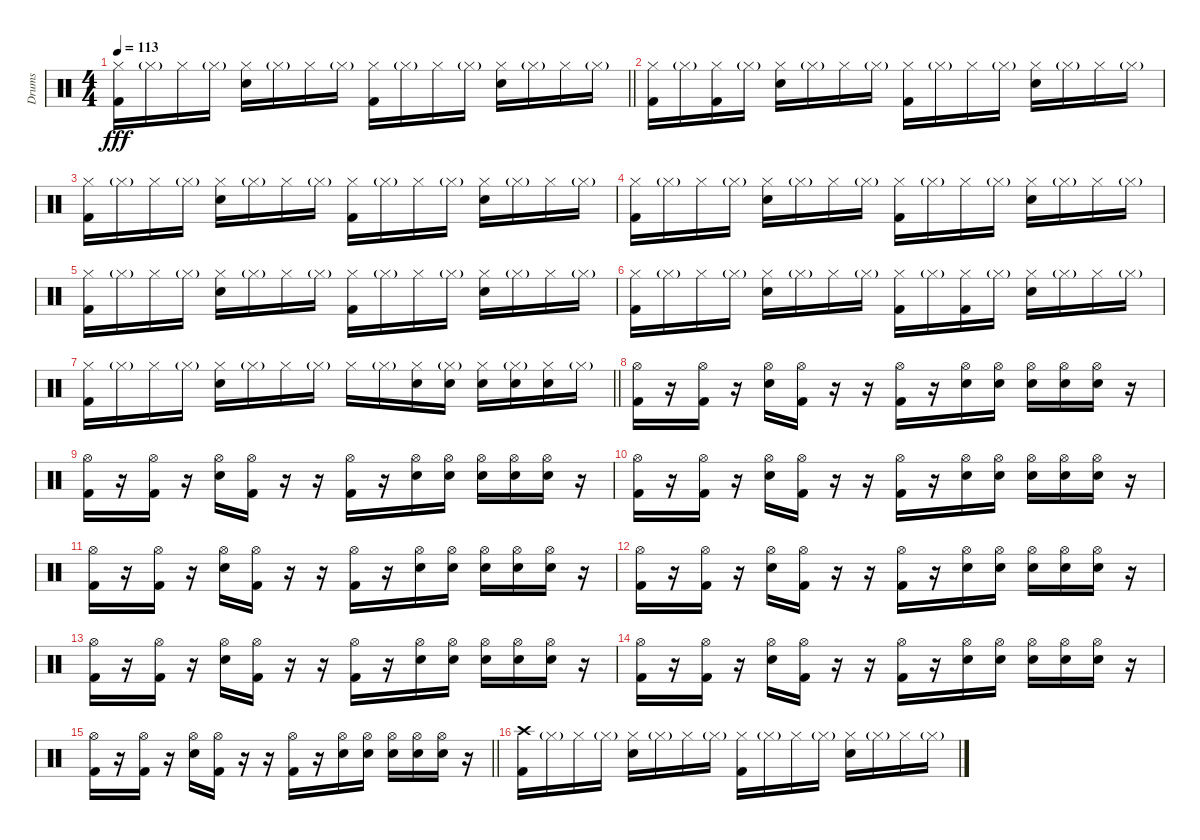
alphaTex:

\track ("Drums" "Drums") {instrument percussion}
\staff {score}
\articulation defaults
\ts (4 4)
\tempo 113
\clef neutral
\barLineRight lightlight
\ks c
("Hi-Hat (closed)" "Kick (hit) 2").16{dy fff} "Hi-Hat (closed)"{g}.16 "Hi-Hat (closed)".16 "Hi-Hat (closed)"{g}.16 ("Hi-Hat (closed)" "Electric Snare (hit)").16 "Hi-Hat (closed)"{g}.16 "Hi-Hat (closed)".16 "Hi-Hat (closed)"{g}.16 ("Hi-Hat (closed)" "Kick (hit) 2").16 "Hi-Hat (closed)"{g}.16 "Hi-Hat (closed)".16 "Hi-Hat (closed)"{g}.16 ("Hi-Hat (closed)" "Electric Snare (hit)").16 "Hi-Hat (closed)"{g}.16 "Hi-Hat (closed)".16 "Hi-Hat (closed)"{g}.16 |
("Hi-Hat (closed)" "Kick (hit) 2").16 "Hi-Hat (closed)"{g}.16 ("Hi-Hat (closed)" "Kick (hit) 2").16 "Hi-Hat (closed)"{g}.16 ("Hi-Hat (closed)" "Electric Snare (hit)").16 "Hi-Hat (closed)"{g}.16 "Hi-Hat (closed)".16 "Hi-Hat (closed)"{g}.16 ("Hi-Hat (closed)" "Kick (hit) 2").16 "Hi-Hat (closed)"{g}.16 "Hi-Hat (closed)".16 "Hi-Hat (closed)"{g}.16 ("Hi-Hat (closed)" "Electric Snare (hit)").16 "Hi-Hat (closed)"{g}.16 "Hi-Hat (closed)".16 "Hi-Hat (closed)"{g}.16 |
("Hi-Hat (closed)" "Kick (hit) 2").16 "Hi-Hat (closed)"{g}.16 "Hi-Hat (closed)".16 "Hi-Hat (closed)"{g}.16 ("Hi-Hat (closed)" "Electric Snare (hit)").16 "Hi-Hat (closed)"{g}.16 "Hi-Hat (closed)".16 "Hi-Hat (closed)"{g}.16 ("Hi-Hat (closed)" "Kick (hit) 2").16 "Hi-Hat (closed)"{g}.16 "Hi-Hat (closed)".16 "Hi-Hat (closed)"{g}.16 ("Hi-Hat (closed)" "Electric Snare (hit)").16 "Hi-Hat (closed)"{g}.16 "Hi-Hat (closed)".16 "Hi-Hat (closed)"{g}.16 |
("Hi-Hat (closed)" "Kick (hit) 2").16 "Hi-Hat (closed)"{g}.16 "Hi-Hat (closed)".16 "Hi-Hat (closed)"{g}.16 ("Hi-Hat (closed)" "Electric Snare (hit)").16 "Hi-Hat (closed)"{g}.16 "Hi-Hat (closed)".16 "Hi-Hat (closed)"{g}.16 ("Hi-Hat (closed)" "Kick (hit) 2").16 "Hi-Hat (closed)"{g}.16 "Hi-Hat (closed)".16 "Hi-Hat (closed)"{g}.16 ("Hi-Hat (closed)" "Electric Snare (hit)").16 "Hi-Hat (closed)"{g}.16 "Hi-Hat (closed)".16 "Hi-Hat (closed)"{g}.16 |
("Hi-Hat (closed)" "Kick (hit) 2").16 "Hi-Hat (closed)"{g}.16 "Hi-Hat (closed)".16 "Hi-Hat (closed)"{g}.16 ("Hi-Hat (closed)" "Electric Snare (hit)").16 "Hi-Hat (closed)"{g}.16 "Hi-Hat (closed)".16 "Hi-Hat (closed)"{g}.16 ("Hi-Hat (closed)" "Kick (hit) 2").16 "Hi-Hat (closed)"{g}.16 "Hi-Hat (closed)".16 "Hi-Hat (closed)"{g}.16 ("Hi-Hat (closed)" "Electric Snare (hit)").16 "Hi-Hat (closed)"{g}.16 "Hi-Hat (closed)".16 "Hi-Hat (closed)"{g}.16 |
("Hi-Hat (closed)" "Kick (hit) 2").16 "Hi-Hat (closed)"{g}.16 "Hi-Hat (closed)".16 "Hi-Hat (closed)"{g}.16 ("Hi-Hat (closed)" "Electric Snare (hit)").16 "Hi-Hat (closed)"{g}.16 "Hi-Hat (closed)".16 "Hi-Hat (closed)"{g}.16 ("Hi-Hat (closed)" "Kick (hit) 2").16 "Hi-Hat (closed)"{g}.16 ("Hi-Hat (closed)" "Kick (hit) 2").16 "Hi-Hat (closed)"{g}.16 ("Hi-Hat (closed)" "Electric Snare (hit)").16 "Hi-Hat (closed)"{g}.16 "Hi-Hat (closed)".16 "Hi-Hat (closed)"{g}.16 |
\barLineRight lightlight
("Hi-Hat (closed)" "Kick (hit) 2").16 "Hi-Hat (closed)"{g}.16 "Hi-Hat (closed)".16 "Hi-Hat (closed)"{g}.16 ("Hi-Hat (closed)" "Electric Snare (hit)").16 "Hi-Hat (closed)"{g}.16 "Hi-Hat (closed)".16 "Hi-Hat (closed)"{g}.16 "Hi-Hat (closed)".16 "Hi-Hat (closed)"{g}.16 ("Hi-Hat (closed)" "Electric Snare (hit)").16 ("Hi-Hat (closed)"{g} "Electric Snare (hit)").16 ("Hi-Hat (closed)" "Electric Snare (hit)").16 ("Hi-Hat (closed)"{g} "Electric Snare (hit)").16 ("Hi-Hat (closed)" "Electric Snare (hit)").16 "Hi-Hat (closed)"{g}.16 |
("Hi-Hat (open)" "Kick (hit) 2").16 r.16 ("Hi-Hat (open)" "Kick (hit) 2").16 r.16 ("Hi-Hat (open)" "Electric Snare (hit)").16 ("Hi-Hat (open)" "Kick (hit) 2").16 r.16 r.16 ("Hi-Hat (open)" "Kick (hit) 2").16 r.16 ("Hi-Hat (open)" "Electric Snare (hit)").16 ("Hi-Hat (open)" "Electric Snare (hit)").16 ("Hi-Hat (open)" "Electric Snare (hit)").16 ("Hi-Hat (open)" "Electric Snare (hit)").16 ("Hi-Hat (open)" "Electric Snare (hit)").16 r.16 |
("Hi-Hat (open)" "Kick (hit) 2").16 r.16 ("Hi-Hat (open)" "Kick (hit) 2").16 r.16 ("Hi-Hat (open)" "Electric Snare (hit)").16 ("Hi-Hat (open)" "Kick (hit) 2").16 r.16 r.16 ("Hi-Hat (open)" "Kick (hit) 2").16 r.16 ("Hi-Hat (open)" "Electric Snare (hit)").16 ("Hi-Hat (open)" "Electric Snare (hit)").16 ("Hi-Hat (open)" "Electric Snare (hit)").16 ("Hi-Hat (open)" "Electric Snare (hit)").16 ("Hi-Hat (open)" "Electric Snare (hit)").16 r.16 |
("Hi-Hat (open)" "Kick (hit) 2").16 r.16 ("Hi-Hat (open)" "Kick (hit) 2").16 r.16 ("Hi-Hat (open)" "Electric Snare (hit)").16 ("Hi-Hat (open)" "Kick (hit) 2").16 r.16 r.16 ("Hi-Hat (open)" "Kick (hit) 2").16 r.16 ("Hi-Hat (open)" "Electric Snare (hit)").16 ("Hi-Hat (open)" "Electric Snare (hit)").16 ("Hi-Hat (open)" "Electric Snare (hit)").16 ("Hi-Hat (open)" "Electric Snare (hit)").16 ("Hi-Hat (open)" "Electric Snare (hit)").16 r.16 |
("Hi-Hat (open)" "Kick (hit) 2").16 r.16 ("Hi-Hat (open)" "Kick (hit) 2").16 r.16 ("Hi-Hat (open)" "Electric Snare (hit)").16 ("Hi-Hat (open)" "Kick (hit) 2").16 r.16 r.16 ("Hi-Hat (open)" "Kick (hit) 2").16 r.16 ("Hi-Hat (open)" "Electric Snare (hit)").16 ("Hi-Hat (open)" "Electric Snare (hit)").16 ("Hi-Hat (open)" "Electric Snare (hit)").16 ("Hi-Hat (open)" "Electric Snare (hit)").16 ("Hi-Hat (open)" "Electric Snare (hit)").16 r.16 |
("Hi-Hat (open)" "Kick (hit) 2").16 r.16 ("Hi-Hat (open)" "Kick (hit) 2").16 r.16 ("Hi-Hat (open)" "Electric Snare (hit)").16 ("Hi-Hat (open)" "Kick (hit) 2").16 r.16 r.16 ("Hi-Hat (open)" "Kick (hit) 2").16 r.16 ("Hi-Hat (open)" "Electric Snare (hit)").16 ("Hi-Hat (open)" "Electric Snare (hit)").16 ("Hi-Hat (open)" "Electric Snare (hit)").16 ("Hi-Hat (open)" "Electric Snare (hit)").16 ("Hi-Hat (open)" "Electric Snare (hit)").16 r.16 |
("Hi-Hat (open)" "Kick (hit) 2").16 r.16 ("Hi-Hat (open)" "Kick (hit) 2").16 r.16 ("Hi-Hat (open)" "Electric Snare (hit)").16 ("Hi-Hat (open)" "Kick (hit) 2").16 r.16 r.16 ("Hi-Hat (open)" "Kick (hit) 2").16 r.16 ("Hi-Hat (open)" "Electric Snare (hit)").16 ("Hi-Hat (open)" "Electric Snare (hit)").16 ("Hi-Hat (open)" "Electric Snare (hit)").16 ("Hi-Hat (open)" "Electric Snare (hit)").16 ("Hi-Hat (open)" "Electric Snare (hit)").16 r.16 |
("Hi-Hat (open)" "Kick (hit) 2").16 r.16 ("Hi-Hat (open)" "Kick (hit) 2").16 r.16 ("Hi-Hat (open)" "Electric Snare (hit)").16 ("Hi-Hat (open)" "Kick (hit) 2").16 r.16 r.16 ("Hi-Hat (open)" "Kick (hit) 2").16 r.16 ("Hi-Hat (open)" "Electric Snare (hit)").16 ("Hi-Hat (open)" "Electric Snare (hit)").16 ("Hi-Hat (open)" "Electric Snare (hit)").16 ("Hi-Hat (open)" "Electric Snare (hit)").16 ("Hi-Hat (open)" "Electric Snare (hit)").16 r.16 |
\barLineRight lightlight
("Hi-Hat (open)" "Kick (hit) 2").16 r.16 ("Hi-Hat (open)" "Kick (hit) 2").16 r.16 ("Hi-Hat (open)" "Electric Snare (hit)").16 ("Hi-Hat (open)" "Kick (hit) 2").16 r.16 r.16 ("Hi-Hat (open)" "Kick (hit) 2").16 r.16 ("Hi-Hat (open)" "Electric Snare (hit)").16 ("Hi-Hat (open)" "Electric Snare (hit)").16 ("Hi-Hat (open)" "Electric Snare (hit)").16 ("Hi-Hat (open)" "Electric Snare (hit)").16 ("Hi-Hat (open)" "Electric Snare (hit)").16 r.16 |
("Crash high (hit)" "Kick (hit) 2").16 "Hi-Hat (closed)"{g}.16 "Hi-Hat (closed)".16 "Hi-Hat (closed)"{g}.16 ("Hi-Hat (closed)" "Electric Snare (hit)").16 "Hi-Hat (closed)"{g}.16 "Hi-Hat (closed)".16 "Hi-Hat (closed)"{g}.16 ("Hi-Hat (closed)" "Kick (hit) 2").16 "Hi-Hat (closed)"{g}.16 "Hi-Hat (closed)".16 "Hi-Hat (closed)"{g}.16 ("Hi-Hat (closed)" "Electric Snare (hit)").16 "Hi-Hat (closed)"{g}.16 "Hi-Hat (closed)".16 "Hi-Hat (closed)"{g}.16
